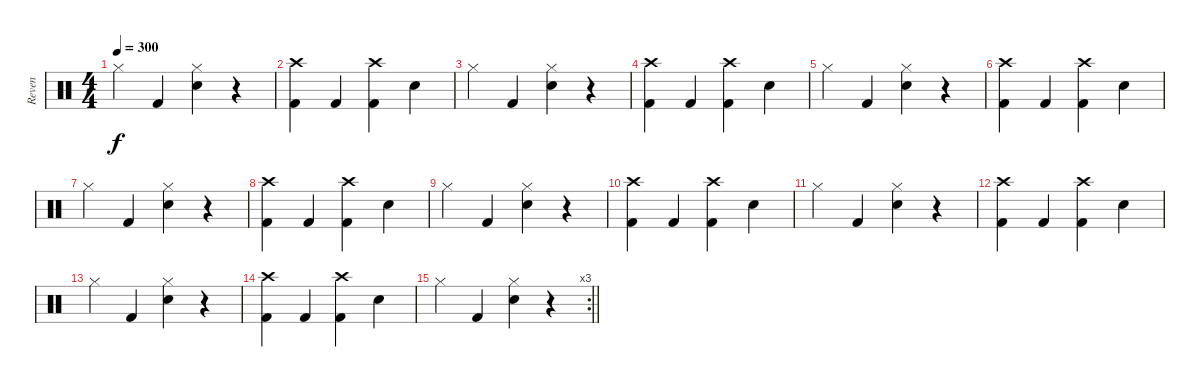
\track ("Reven" "Reven") {instrument percussion}
\staff {score}
\articulation defaults
\ts (4 4)
\tempo 300
\clef neutral
\ks c "Hi-Hat (closed)".4{dy f} "Kick (hit) 2".4
("Hi-Hat (closed)" "Electric Snare (hit)").4 r.4 |
("Crash high (hit)" "Kick (hit) 2").4 "Kick (hit) 2".4 ("Crash high (hit)" "Kick (hit) 2").4 "Electric Snare (hit)".4 |
"Hi-Hat (closed)".4 "Kick (hit) 2".4 ("Hi-Hat (closed)" "Electric Snare (hit)").4 r.4 |
("Crash high (hit)" "Kick (hit) 2").4 "Kick (hit) 2".4 ("Crash high (hit)" "Kick (hit) 2").4 "Electric Snare (hit)".4 |
"Hi-Hat (closed)".4 "Kick (hit) 2".4 ("Hi-Hat (closed)" "Electric Snare (hit)").4 r.4 |
("Crash high (hit)" "Kick (hit) 2").4 "Kick (hit) 2".4 ("Crash high (hit)" "Kick (hit) 2").4 "Electric Snare (hit)".4 |
"Hi-Hat (closed)".4 "Kick (hit) 2".4 ("Hi-Hat (closed)" "Electric Snare (hit)").4 r.4 |
("Crash high (hit)" "Kick (hit) 2").4 "Kick (hit) 2".4 ("Crash high (hit)" "Kick (hit) 2").4 "Electric Snare (hit)".4 |
"Hi-Hat (closed)".4 "Kick (hit) 2".4 ("Hi-Hat (closed)" "Electric Snare (hit)").4 r.4 |
("Crash high (hit)" "Kick (hit) 2").4 "Kick (hit) 2".4 ("Crash high (hit)" "Kick (hit) 2").4 "Electric Snare (hit)".4 |
"Hi-Hat (closed)".4 "Kick (hit) 2".4 ("Hi-Hat (closed)" "Electric Snare (hit)").4 r.4 |
("Crash high (hit)" "Kick (hit) 2").4 "Kick (hit) 2".4 ("Crash high (hit)" "Kick (hit) 2").4 "Electric Snare (hit)".4 |
"Hi-Hat (closed)".4 "Kick (hit) 2".4 ("Hi-Hat (closed)" "Electric Snare (hit)").4 r.4 |
("Crash high (hit)" "Kick (hit) 2").4 "Kick (hit) 2".4 ("Crash high (hit)" "Kick (hit) 2").4 "Electric Snare (hit)".4 |
\rc 3
\barLineRight lightlight "Hi-Hat (closed)".4 "Kick (hit) 2".4
("Hi-Hat (closed)" "Electric Snare (hit)").4 r.4
